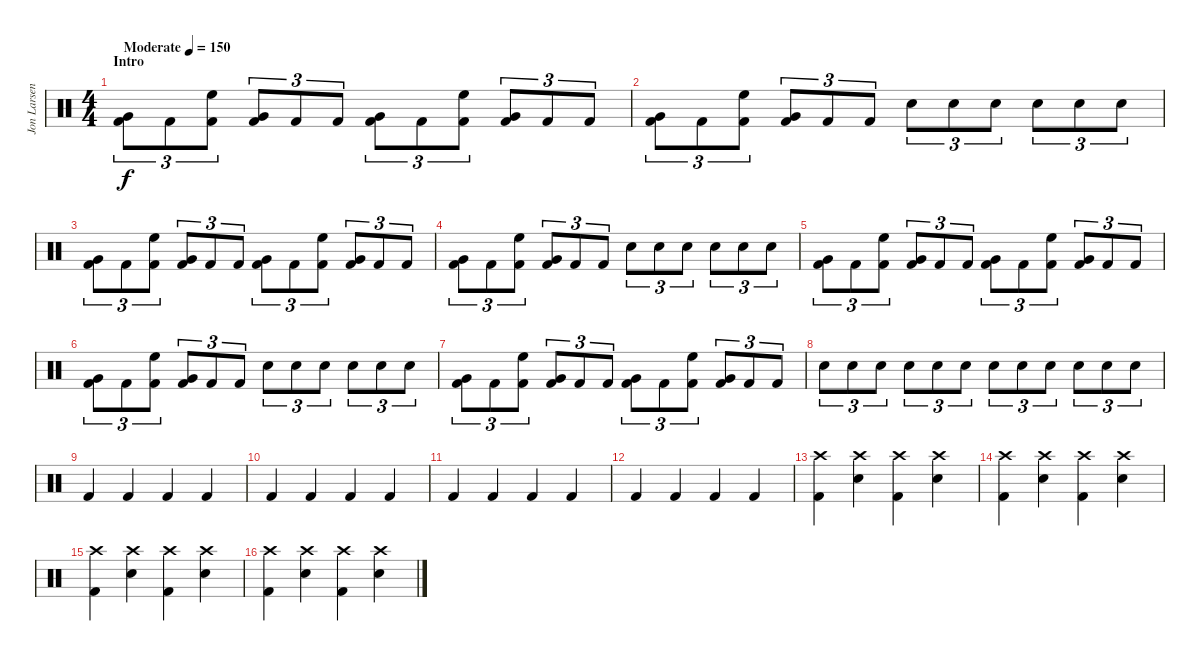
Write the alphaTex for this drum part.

\track ("Jon Larsen" "Jon Larsen") {instrument percussion}
\staff {score}
\articulation defaults
\ts (4 4)
\section ("" "Intro")
\tempo (150 "Moderate")
\clef neutral
\ks c
("Very Low Tom (hit)" "Kick (hit) 2").8{tu (3 2) dy f} "Kick (hit) 2".8{tu (3 2)} ("High Floor Tom (hit)" "Kick (hit) 2").8{tu (3 2)} ("Very Low Tom (hit)" "Kick (hit) 2").8{tu (3 2)} "Kick (hit) 2".8{tu (3 2)} "Kick (hit) 2".8{tu (3 2)} ("Very Low Tom (hit)" "Kick (hit) 2").8{tu (3 2)} "Kick (hit) 2".8{tu (3 2)} ("High Floor Tom (hit)" "Kick (hit) 2").8{tu (3 2)} ("Very Low Tom (hit)" "Kick (hit) 2").8{tu (3 2)} "Kick (hit) 2".8{tu (3 2)} "Kick (hit) 2".8{tu (3 2)} |
("Very Low Tom (hit)" "Kick (hit) 2").8{tu (3 2)} "Kick (hit) 2".8{tu (3 2)} ("High Floor Tom (hit)" "Kick (hit) 2").8{tu (3 2)} ("Very Low Tom (hit)" "Kick (hit) 2").8{tu (3 2)} "Kick (hit) 2".8{tu (3 2)} "Kick (hit) 2".8{tu (3 2)} "Snare (hit) 2".8{tu (3 2)} "Snare (hit) 2".8{tu (3 2)} "Snare (hit) 2".8{tu (3 2)} "Snare (hit) 2".8{tu (3 2)} "Snare (hit) 2".8{tu (3 2)} "Snare (hit) 2".8{tu (3 2)} |
("Very Low Tom (hit)" "Kick (hit) 2").8{tu (3 2)} "Kick (hit) 2".8{tu (3 2)} ("High Floor Tom (hit)" "Kick (hit) 2").8{tu (3 2)} ("Very Low Tom (hit)" "Kick (hit) 2").8{tu (3 2)} "Kick (hit) 2".8{tu (3 2)} "Kick (hit) 2".8{tu (3 2)} ("Very Low Tom (hit)" "Kick (hit) 2").8{tu (3 2)} "Kick (hit) 2".8{tu (3 2)} ("High Floor Tom (hit)" "Kick (hit) 2").8{tu (3 2)} ("Very Low Tom (hit)" "Kick (hit) 2").8{tu (3 2)} "Kick (hit) 2".8{tu (3 2)} "Kick (hit) 2".8{tu (3 2)} |
("Very Low Tom (hit)" "Kick (hit) 2").8{tu (3 2)} "Kick (hit) 2".8{tu (3 2)} ("High Floor Tom (hit)" "Kick (hit) 2").8{tu (3 2)} ("Very Low Tom (hit)" "Kick (hit) 2").8{tu (3 2)} "Kick (hit) 2".8{tu (3 2)} "Kick (hit) 2".8{tu (3 2)} "Snare (hit) 2".8{tu (3 2)} "Snare (hit) 2".8{tu (3 2)} "Snare (hit) 2".8{tu (3 2)} "Snare (hit) 2".8{tu (3 2)} "Snare (hit) 2".8{tu (3 2)} "Snare (hit) 2".8{tu (3 2)} |
("Very Low Tom (hit)" "Kick (hit) 2").8{tu (3 2)} "Kick (hit) 2".8{tu (3 2)} ("High Floor Tom (hit)" "Kick (hit) 2").8{tu (3 2)} ("Very Low Tom (hit)" "Kick (hit) 2").8{tu (3 2)} "Kick (hit) 2".8{tu (3 2)} "Kick (hit) 2".8{tu (3 2)} ("Very Low Tom (hit)" "Kick (hit) 2").8{tu (3 2)} "Kick (hit) 2".8{tu (3 2)} ("High Floor Tom (hit)" "Kick (hit) 2").8{tu (3 2)} ("Very Low Tom (hit)" "Kick (hit) 2").8{tu (3 2)} "Kick (hit) 2".8{tu (3 2)} "Kick (hit) 2".8{tu (3 2)} |
("Very Low Tom (hit)" "Kick (hit) 2").8{tu (3 2)} "Kick (hit) 2".8{tu (3 2)} ("High Floor Tom (hit)" "Kick (hit) 2").8{tu (3 2)} ("Very Low Tom (hit)" "Kick (hit) 2").8{tu (3 2)} "Kick (hit) 2".8{tu (3 2)} "Kick (hit) 2".8{tu (3 2)} "Snare (hit) 2".8{tu (3 2)} "Snare (hit) 2".8{tu (3 2)} "Snare (hit) 2".8{tu (3 2)} "Snare (hit) 2".8{tu (3 2)} "Snare (hit) 2".8{tu (3 2)} "Snare (hit) 2".8{tu (3 2)} |
("Very Low Tom (hit)" "Kick (hit) 2").8{tu (3 2)} "Kick (hit) 2".8{tu (3 2)} ("High Floor Tom (hit)" "Kick (hit) 2").8{tu (3 2)} ("Very Low Tom (hit)" "Kick (hit) 2").8{tu (3 2)} "Kick (hit) 2".8{tu (3 2)} "Kick (hit) 2".8{tu (3 2)} ("Very Low Tom (hit)" "Kick (hit) 2").8{tu (3 2)} "Kick (hit) 2".8{tu (3 2)} ("High Floor Tom (hit)" "Kick (hit) 2").8{tu (3 2)} ("Very Low Tom (hit)" "Kick (hit) 2").8{tu (3 2)} "Kick (hit) 2".8{tu (3 2)} "Kick (hit) 2".8{tu (3 2)} |
"Snare (hit) 2".8{tu (3 2)} "Snare (hit) 2".8{tu (3 2)} "Snare (hit) 2".8{tu (3 2)} "Snare (hit) 2".8{tu (3 2)} "Snare (hit) 2".8{tu (3 2)} "Snare (hit) 2".8{tu (3 2)} "Snare (hit) 2".8{tu (3 2)} "Snare (hit) 2".8{tu (3 2)} "Snare (hit) 2".8{tu (3 2)} "Snare (hit) 2".8{tu (3 2)} "Snare (hit) 2".8{tu (3 2)} "Snare (hit) 2".8{tu (3 2)} |
"Kick (hit) 2".4 "Kick (hit) 2".4 "Kick (hit) 2".4 "Kick (hit) 2".4 |
"Kick (hit) 2".4 "Kick (hit) 2".4 "Kick (hit) 2".4 "Kick (hit) 2".4 |
"Kick (hit) 2".4 "Kick (hit) 2".4 "Kick (hit) 2".4 "Kick (hit) 2".4 |
"Kick (hit) 2".4 "Kick (hit) 2".4 "Kick (hit) 2".4 "Kick (hit) 2".4 |
("Kick (hit) 2" "Crash high (hit)").4 ("Snare (hit) 2" "Crash high (hit)").4 ("Kick (hit) 2" "Crash high (hit)").4 ("Snare (hit) 2" "Crash high (hit)").4 |
("Kick (hit) 2" "Crash high (hit)").4 ("Snare (hit) 2" "Crash high (hit)").4 ("Kick (hit) 2" "Crash high (hit)").4 ("Snare (hit) 2" "Crash high (hit)").4 |
("Kick (hit) 2" "Crash high (hit)").4 ("Snare (hit) 2" "Crash high (hit)").4 ("Kick (hit) 2" "Crash high (hit)").4 ("Snare (hit) 2" "Crash high (hit)").4 |
("Kick (hit) 2" "Crash high (hit)").4 ("Snare (hit) 2" "Crash high (hit)").4 ("Kick (hit) 2" "Crash high (hit)").4 ("Snare (hit) 2" "Crash high (hit)").4
